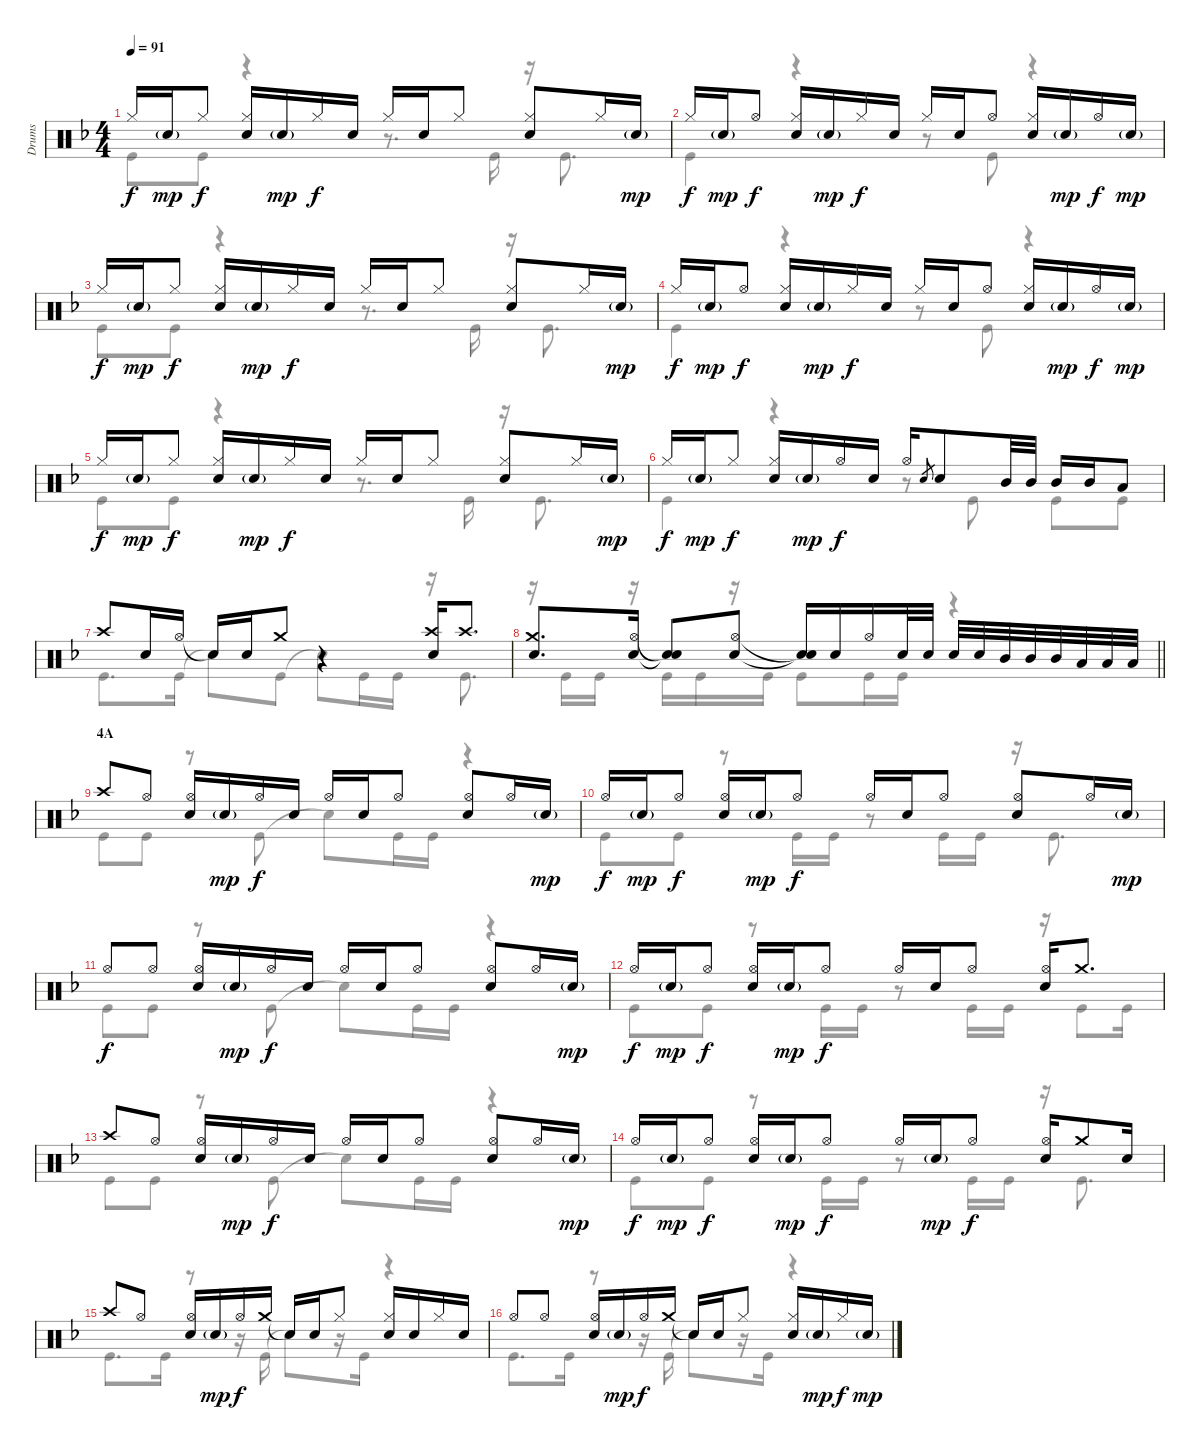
\track ("Drums" "Drums") {instrument percussion}
\staff {score}
\articulation defaults
\voice
\ts (4 4)
\tempo 91
\clef neutral
\ks f "Hi-Hat (closed)".16{dy f} "Snare (hit) 2"{g}.16{dy mp} "Hi-Hat (closed)".8{dy f}
("Hi-Hat (closed)" "Snare (hit) 2").16 "Snare (hit) 2"{g}.16{dy mp} "Hi-Hat (closed)".16{dy f} "Snare (hit) 2".16 "Hi-Hat (closed)".16 "Snare (hit) 2".16 "Hi-Hat (closed)".8 ("Hi-Hat (closed)" "Snare (hit) 2").8 "Hi-Hat (closed)".16 "Snare (hit) 2"{g}.16{dy mp} |
"Hi-Hat (closed)".16{dy f} "Snare (hit) 2"{g}.16{dy mp} "Hi-Hat (open)".8{dy f} ("Hi-Hat (closed)" "Snare (hit) 2").16 "Snare (hit) 2"{g}.16{dy mp} "Hi-Hat (closed)".16{dy f} "Snare (hit) 2".16 "Hi-Hat (closed)".16 "Snare (hit) 2".16 "Hi-Hat (open)".8 ("Hi-Hat (closed)" "Snare (hit) 2").16 "Snare (hit) 2"{g}.16{dy mp} "Hi-Hat (open)".16{dy f} "Snare (hit) 2"{g}.16{dy mp} |
"Hi-Hat (closed)".16{dy f} "Snare (hit) 2"{g}.16{dy mp} "Hi-Hat (closed)".8{dy f} ("Hi-Hat (closed)" "Snare (hit) 2").16 "Snare (hit) 2"{g}.16{dy mp} "Hi-Hat (closed)".16{dy f} "Snare (hit) 2".16 "Hi-Hat (closed)".16 "Snare (hit) 2".16 "Hi-Hat (closed)".8 ("Hi-Hat (closed)" "Snare (hit) 2").8 "Hi-Hat (closed)".16 "Snare (hit) 2"{g}.16{dy mp} |
"Hi-Hat (closed)".16{dy f} "Snare (hit) 2"{g}.16{dy mp} "Hi-Hat (open)".8{dy f} ("Hi-Hat (closed)" "Snare (hit) 2").16 "Snare (hit) 2"{g}.16{dy mp} "Hi-Hat (closed)".16{dy f} "Snare (hit) 2".16 "Hi-Hat (closed)".16 "Snare (hit) 2".16 "Hi-Hat (open)".8 ("Hi-Hat (closed)" "Snare (hit) 2").16 "Snare (hit) 2"{g}.16{dy mp} "Hi-Hat (open)".16{dy f} "Snare (hit) 2"{g}.16{dy mp} |
"Hi-Hat (closed)".16{dy f} "Snare (hit) 2"{g}.16{dy mp} "Hi-Hat (closed)".8{dy f} ("Hi-Hat (closed)" "Snare (hit) 2").16 "Snare (hit) 2"{g}.16{dy mp} "Hi-Hat (closed)".16{dy f} "Snare (hit) 2".16 "Hi-Hat (closed)".16 "Snare (hit) 2".16 "Hi-Hat (closed)".8 ("Hi-Hat (closed)" "Snare (hit) 2").8 "Hi-Hat (closed)".16 "Snare (hit) 2"{g}.16{dy mp} |
"Hi-Hat (closed)".16{dy f} "Snare (hit) 2"{g}.16{dy mp} "Hi-Hat (closed)".8{dy f} ("Hi-Hat (closed)" "Snare (hit) 2").16 "Snare (hit) 2"{g}.16{dy mp} "Hi-Hat (open)".16{dy f} "Snare (hit) 2".16 "Hi-Hat (open)".16 "Snare (hit) 2".8{gr} "Snare (hit) 2".8 "Mid Tom (hit)".32 "Mid Tom (hit)".32 "Mid Tom (hit)".16 "Mid Tom (hit)".16 "Low Tom (hit)".8 |
"Crash high (hit)".8 "Snare (hit) 2".16 "Hi-Hat (open)".16 "Snare (hit)"{t}.16 "Snare (hit) 2".16 "Crash medium (hit)".8 r.4 ("Crash high (hit)" "Snare (hit) 2").16 "Crash high (hit)".8{d} |
\barLineRight lightlight
("Crash medium (hit)" "Snare (hit) 2").8{d} ("Hi-Hat (open)" "Snare (hit) 2").16 ("Snare (hit)"{t} "Snare (hit)"{t}).8 ("Hi-Hat (open)" "Snare (hit) 2").8 ("Snare (hit)"{t} "Snare (hit)"{t}).16 "Snare (hit) 2".16 "Hi-Hat (open)".16 "Snare (hit) 2".32 "Snare (hit) 2".32 "Snare (hit) 2".32 "Snare (hit) 2".32 "Mid Tom (hit)".32 "Mid Tom (hit)".32 "Mid Tom (hit)".32 "Low Tom (hit)".32 "Low Tom (hit)".32 "Low Tom (hit)".32 |
\section ("" "4A")
"Crash high (hit)".8 "Hi-Hat (open)".8 ("Hi-Hat (open)" "Snare (hit) 2").16 "Snare (hit) 2"{g}.16{dy mp} "Hi-Hat (open)".16{dy f} "Snare (hit) 2".16 "Hi-Hat (open)".16 "Snare (hit) 2".16 "Hi-Hat (open)".8 ("Hi-Hat (open)" "Snare (hit) 2").8 "Hi-Hat (open)".16 "Snare (hit) 2"{g}.16{dy mp} |
"Hi-Hat (open)".16{dy f} "Snare (hit) 2"{g}.16{dy mp} "Hi-Hat (open)".8{dy f} ("Hi-Hat (open)" "Snare (hit) 2").16 "Snare (hit) 2"{g}.16{dy mp} "Hi-Hat (open)".8{dy f} "Hi-Hat (open)".16 "Snare (hit) 2".16 "Hi-Hat (open)".8 ("Hi-Hat (open)" "Snare (hit) 2").8 "Hi-Hat (open)".16 "Snare (hit) 2"{g}.16{dy mp} |
"Hi-Hat (open)".8{dy f} "Hi-Hat (open)".8 ("Hi-Hat (open)" "Snare (hit) 2").16 "Snare (hit) 2"{g}.16{dy mp} "Hi-Hat (open)".16{dy f} "Snare (hit) 2".16 "Hi-Hat (open)".16 "Snare (hit) 2".16 "Hi-Hat (open)".8 ("Hi-Hat (open)" "Snare (hit) 2").8 "Hi-Hat (open)".16 "Snare (hit) 2"{g}.16{dy mp} |
"Hi-Hat (open)".16{dy f} "Snare (hit) 2"{g}.16{dy mp} "Hi-Hat (open)".8{dy f} ("Hi-Hat (open)" "Snare (hit) 2").16 "Snare (hit) 2"{g}.16{dy mp} "Hi-Hat (open)".8{dy f} "Hi-Hat (open)".16 "Snare (hit) 2".16 "Hi-Hat (open)".8 ("Hi-Hat (open)" "Snare (hit) 2").16 "Crash medium (hit)".8{d} |
"Crash high (hit)".8 "Hi-Hat (open)".8 ("Hi-Hat (open)" "Snare (hit) 2").16 "Snare (hit) 2"{g}.16{dy mp} "Hi-Hat (open)".16{dy f} "Snare (hit) 2".16 "Hi-Hat (open)".16 "Snare (hit) 2".16 "Hi-Hat (open)".8 ("Hi-Hat (open)" "Snare (hit) 2").8 "Hi-Hat (open)".16 "Snare (hit) 2"{g}.16{dy mp} |
"Hi-Hat (open)".16{dy f} "Snare (hit) 2"{g}.16{dy mp} "Hi-Hat (open)".8{dy f} ("Hi-Hat (open)" "Snare (hit) 2").16 "Snare (hit) 2"{g}.16{dy mp} "Hi-Hat (open)".8{dy f} "Hi-Hat (open)".16 "Snare (hit) 2"{g}.16{dy mp} "Hi-Hat (open)".8{dy f} ("Hi-Hat (open)" "Snare (hit) 2").16 "Crash medium (hit)".8 "Snare (hit) 2".16 |
"Crash high (hit)".8 "Hi-Hat (open)".8 ("Hi-Hat (open)" "Snare (hit) 2").16 "Snare (hit) 2"{g}.16{dy mp} "Hi-Hat (open)".16{dy f} "Crash medium (hit)".16 "Snare (hit)"{t}.16 "Snare (hit) 2".16 "Hi-Hat (closed)".8 ("Hi-Hat (closed)" "Snare (hit) 2").16 "Snare (hit) 2".16 "Hi-Hat (closed)".16 "Snare (hit) 2".16 |
"Hi-Hat (open)".8 "Hi-Hat (open)".8 ("Hi-Hat (open)" "Snare (hit) 2").16 "Snare (hit) 2"{g}.16{dy mp} "Hi-Hat (open)".16{dy f} "Crash medium (hit)".16 "Snare (hit)"{t}.16 "Snare (hit) 2".16 "Hi-Hat (closed)".8 ("Hi-Hat (closed)" "Snare (hit) 2").16 "Snare (hit) 2"{g}.16{dy mp} "Hi-Hat (closed)".16{dy f} "Snare (hit) 2"{g}.16{dy mp}
\voice
\clef neutral
\ottava regular
\simile none
\ks f "Kick (hit)".8{dy f} "Kick (hit)".8
r.4 r.8{d} "Kick (hit)".16 r.16 "Kick (hit)".8{d} |
"Kick (hit)".4 r.4 r.8 "Kick (hit)".8 r.4 |
"Kick (hit)".8 "Kick (hit)".8 r.4 r.8{d} "Kick (hit)".16 r.16 "Kick (hit)".8{d} |
"Kick (hit)".4 r.4 r.8 "Kick (hit)".8 r.4 |
"Kick (hit)".8 "Kick (hit)".8 r.4 r.8{d} "Kick (hit)".16 r.16 "Kick (hit)".8{d} |
"Kick (hit)".4 r.4 r.8 "Kick (hit)".8 "Kick (hit)".8 "Kick (hit)".8 |
"Kick (hit)".8{d} "Kick (hit)".16 "Snare (hit)"{t}.8 "Kick (hit)".8 "Snare (hit)"{t}.8 "Kick (hit)".16 "Kick (hit)".16 r.16 "Kick (hit)".8{d} |
\barLineRight lightlight
r.16 "Kick (hit)".16 "Kick (hit)".16 r.16 "Kick (hit)".16 "Kick (hit)".16 r.16 "Kick (hit)".16 "Kick (hit)".8 "Kick (hit)".16 "Kick (hit)".16 r.4 |
"Kick (hit)".8 "Kick (hit)".8 r.8 "Kick (hit)".8 "Snare (hit)"{t}.8 "Kick (hit)".16 "Kick (hit)".16 r.4 |
"Kick (hit)".8 "Kick (hit)".8 r.8 "Kick (hit)".16 "Kick (hit)".16 r.8 "Kick (hit)".16 "Kick (hit)".16 r.16 "Kick (hit)".8{d} |
"Kick (hit)".8 "Kick (hit)".8 r.8 "Kick (hit)".8 "Snare (hit)"{t}.8 "Kick (hit)".16 "Kick (hit)".16 r.4 |
"Kick (hit)".8 "Kick (hit)".8 r.8 "Kick (hit)".16 "Kick (hit)".16 r.8 "Kick (hit)".16 "Kick (hit)".16 r.16 "Kick (hit)".8 "Kick (hit)".16 |
"Kick (hit)".8 "Kick (hit)".8 r.8 "Kick (hit)".8 "Snare (hit)"{t}.8 "Kick (hit)".16 "Kick (hit)".16 r.4 |
"Kick (hit)".8 "Kick (hit)".8 r.8 "Kick (hit)".16 "Kick (hit)".16 r.8 "Kick (hit)".16 "Kick (hit)".16 r.16 "Kick (hit)".8{d} |
"Kick (hit)".8{d} "Kick (hit)".16 r.8 r.16 "Kick (hit)".16 "Snare (hit)"{t}.8 r.16 "Kick (hit)".16 r.4 |
"Kick (hit)".8{d} "Kick (hit)".16 r.8 r.16 "Kick (hit)".16 "Snare (hit)"{t}.8 r.16 "Kick (hit)".16 r.4
